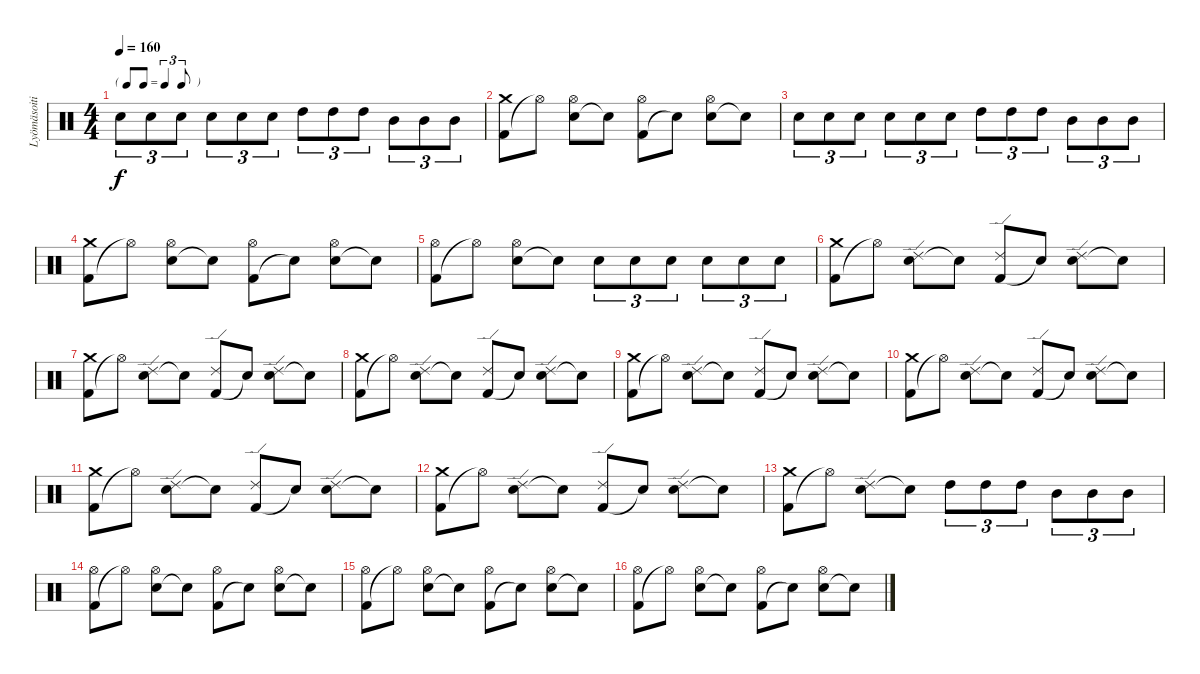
\track ("Lyömäsoitin" "Lyömäsoiti") {instrument percussion}
\staff {score}
\articulation defaults
\ts (4 4)
\tf triplet8th
\tempo 160
\clef neutral
\ks c "Electric Snare (hit)".8{tu (3 2) dy f} "Electric Snare (hit)".8{tu (3 2)} "Electric Snare (hit)".8{tu (3 2)} "Electric Snare (hit)".8{tu (3 2)} "Electric Snare (hit)".8{tu (3 2)} "Electric Snare (hit)".8{tu (3 2)} "High Tom (hit)".8{tu (3 2)} "High Tom (hit)".8{tu (3 2)} "High Tom (hit)".8{tu (3 2)} "Mid Tom (hit)".8{tu (3 2)} "Mid Tom (hit)".8{tu (3 2)} "Mid Tom (hit)".8{tu (3 2)}
|
("Kick (hit) 2" "Crash medium (hit)").8 "Hi-Hat (open)"{t}.8 ("Electric Snare (hit)" "Hi-Hat (open)").8 "Snare (hit)"{t}.8 ("Kick (hit) 2" "Hi-Hat (open)").8 "Snare (hit)"{t}.8 ("Electric Snare (hit)" "Hi-Hat (open)").8 "Snare (hit)"{t}.8 |
"Electric Snare (hit)".8{tu (3 2)} "Electric Snare (hit)".8{tu (3 2)} "Electric Snare (hit)".8{tu (3 2)} "Electric Snare (hit)".8{tu (3 2)} "Electric Snare (hit)".8{tu (3 2)} "Electric Snare (hit)".8{tu (3 2)} "High Tom (hit)".8{tu (3 2)} "High Tom (hit)".8{tu (3 2)} "High Tom (hit)".8{tu (3 2)} "Mid Tom (hit)".8{tu (3 2)} "Mid Tom (hit)".8{tu (3 2)} "Mid Tom (hit)".8{tu (3 2)} |
("Kick (hit) 2" "Crash medium (hit)").8 "Hi-Hat (open)"{t}.8 ("Electric Snare (hit)" "Hi-Hat (open)").8 "Snare (hit)"{t}.8 ("Kick (hit) 2" "Hi-Hat (open)").8 "Snare (hit)"{t}.8 ("Electric Snare (hit)" "Hi-Hat (open)").8 "Snare (hit)"{t}.8 |
("Kick (hit) 2" "Hi-Hat (open)").8 "Hi-Hat (open)"{t}.8 ("Electric Snare (hit)" "Hi-Hat (open)").8 "Snare (hit)"{t}.8 "Electric Snare (hit)".8{tu (3 2)} "Electric Snare (hit)".8{tu (3 2)} "Electric Snare (hit)".8{tu (3 2)} "Electric Snare (hit)".8{tu (3 2)} "Electric Snare (hit)".8{tu (3 2)} "Electric Snare (hit)".8{tu (3 2)} |
("Kick (hit) 2" "Crash medium (hit)").8 "Hi-Hat (open)"{t}.8 ("Electric Snare (hit)" "Ride (edge) 2").8 "Snare (hit)"{t}.8 ("Kick (hit) 2" "Ride (edge) 2").8 "Snare (hit)"{t}.8 ("Electric Snare (hit)" "Ride (edge) 2").8 "Snare (hit)"{t}.8 |
("Kick (hit) 2" "Crash medium (hit)").8 "Hi-Hat (open)"{t}.8 ("Electric Snare (hit)" "Ride (edge) 2").8 "Snare (hit)"{t}.8 ("Kick (hit) 2" "Ride (edge) 2").8 "Snare (hit)"{t}.8 ("Electric Snare (hit)" "Ride (edge) 2").8 "Snare (hit)"{t}.8 |
("Kick (hit) 2" "Crash medium (hit)").8 "Hi-Hat (open)"{t}.8 ("Electric Snare (hit)" "Ride (edge) 2").8 "Snare (hit)"{t}.8 ("Kick (hit) 2" "Ride (edge) 2").8 "Snare (hit)"{t}.8 ("Electric Snare (hit)" "Ride (edge) 2").8 "Snare (hit)"{t}.8 |
("Kick (hit) 2" "Crash medium (hit)").8 "Hi-Hat (open)"{t}.8 ("Electric Snare (hit)" "Ride (edge) 2").8 "Snare (hit)"{t}.8 ("Kick (hit) 2" "Ride (edge) 2").8 "Snare (hit)"{t}.8 ("Electric Snare (hit)" "Ride (edge) 2").8 "Snare (hit)"{t}.8 |
("Kick (hit) 2" "Crash medium (hit)").8 "Hi-Hat (open)"{t}.8 ("Electric Snare (hit)" "Ride (edge) 2").8 "Snare (hit)"{t}.8 ("Kick (hit) 2" "Ride (edge) 2").8 "Snare (hit)"{t}.8 ("Electric Snare (hit)" "Ride (edge) 2").8 "Snare (hit)"{t}.8 |
("Kick (hit) 2" "Crash medium (hit)").8 "Hi-Hat (open)"{t}.8 ("Electric Snare (hit)" "Ride (edge) 2").8 "Snare (hit)"{t}.8 ("Kick (hit) 2" "Ride (edge) 2").8 "Snare (hit)"{t}.8 ("Electric Snare (hit)" "Ride (edge) 2").8 "Snare (hit)"{t}.8 |
("Kick (hit) 2" "Crash medium (hit)").8 "Hi-Hat (open)"{t}.8 ("Electric Snare (hit)" "Ride (edge) 2").8 "Snare (hit)"{t}.8 ("Kick (hit) 2" "Ride (edge) 2").8 "Snare (hit)"{t}.8 ("Electric Snare (hit)" "Ride (edge) 2").8 "Snare (hit)"{t}.8 |
("Kick (hit) 2" "Crash medium (hit)").8 "Hi-Hat (open)"{t}.8 ("Electric Snare (hit)" "Ride (edge) 2").8 "Snare (hit)"{t}.8 "High Tom (hit)".8{tu (3 2)} "High Tom (hit)".8{tu (3 2)} "High Tom (hit)".8{tu (3 2)} "Mid Tom (hit)".8{tu (3 2)} "Mid Tom (hit)".8{tu (3 2)} "Mid Tom (hit)".8{tu (3 2)} |
("Kick (hit) 2" "Hi-Hat (open)").8 "Hi-Hat (open)"{t}.8 ("Electric Snare (hit)" "Hi-Hat (open)").8 "Snare (hit)"{t}.8 ("Kick (hit) 2" "Hi-Hat (open)").8 "Snare (hit)"{t}.8 ("Electric Snare (hit)" "Hi-Hat (open)").8 "Snare (hit)"{t}.8 |
("Kick (hit) 2" "Hi-Hat (open)").8 "Hi-Hat (open)"{t}.8 ("Electric Snare (hit)" "Hi-Hat (open)").8 "Snare (hit)"{t}.8 ("Kick (hit) 2" "Hi-Hat (open)").8 "Snare (hit)"{t}.8 ("Electric Snare (hit)" "Hi-Hat (open)").8 "Snare (hit)"{t}.8 |
("Kick (hit) 2" "Hi-Hat (open)").8 "Hi-Hat (open)"{t}.8 ("Electric Snare (hit)" "Hi-Hat (open)").8 "Snare (hit)"{t}.8 ("Kick (hit) 2" "Hi-Hat (open)").8 "Snare (hit)"{t}.8 ("Electric Snare (hit)" "Hi-Hat (open)").8 "Snare (hit)"{t}.8
